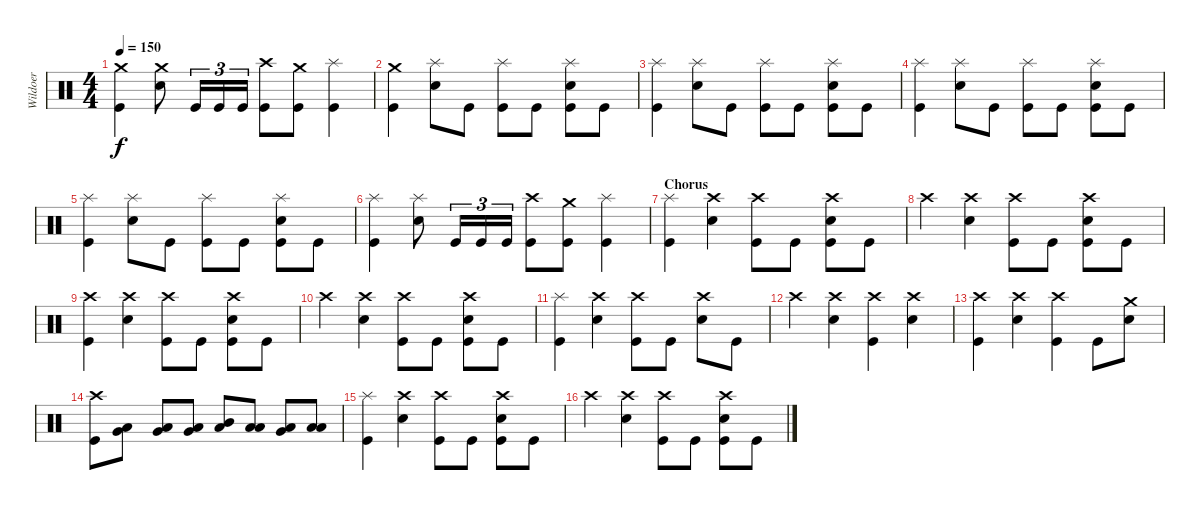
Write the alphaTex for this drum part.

\track ("Wildoer" "Wildoer") {instrument percussion}
\staff {score}
\articulation defaults
\ts (4 4)
\tempo 150
\clef neutral
\ks c
("Crash medium (hit)" "Kick (hit)").4{dy f} ("Crash medium (hit)" "Electric Snare (hit)").8 "Kick (hit)".16{tu (3 2)} "Kick (hit)".16{tu (3 2)} "Kick (hit)".16{tu (3 2)} ("Crash high (hit)" "Kick (hit)").8 ("Crash medium (hit)" "Kick (hit)").8 ("Splash (hit)" "Kick (hit)").4 |
("Crash medium (hit)" "Kick (hit)").4 ("Splash (hit)" "Electric Snare (hit)").8 "Kick (hit)".8 ("Splash (hit)" "Kick (hit)").8 "Kick (hit)".8 ("Splash (hit)" "Electric Snare (hit)" "Kick (hit)").8 "Kick (hit)".8 |
("Splash (hit)" "Kick (hit)").4 ("Splash (hit)" "Electric Snare (hit)").8 "Kick (hit)".8 ("Splash (hit)" "Kick (hit)").8 "Kick (hit)".8 ("Splash (hit)" "Electric Snare (hit)" "Kick (hit)").8 "Kick (hit)".8 |
("Splash (hit)" "Kick (hit)").4 ("Splash (hit)" "Electric Snare (hit)").8 "Kick (hit)".8 ("Splash (hit)" "Kick (hit)").8 "Kick (hit)".8 ("Splash (hit)" "Electric Snare (hit)" "Kick (hit)").8 "Kick (hit)".8 |
("Splash (hit)" "Kick (hit)").4 ("Splash (hit)" "Electric Snare (hit)").8 "Kick (hit)".8 ("Splash (hit)" "Kick (hit)").8 "Kick (hit)".8 ("Splash (hit)" "Electric Snare (hit)" "Kick (hit)").8 "Kick (hit)".8 |
("Splash (hit)" "Kick (hit)").4 ("Splash (hit)" "Electric Snare (hit)").8 "Kick (hit)".16{tu (3 2)} "Kick (hit)".16{tu (3 2)} "Kick (hit)".16{tu (3 2)} ("Crash high (hit)" "Kick (hit)").8 ("Crash medium (hit)" "Kick (hit)").8 ("Splash (hit)" "Kick (hit)").4 |
\section ("" "Chorus")
("Splash (hit)" "Kick (hit)").4 ("Crash high (hit)" "Electric Snare (hit)").4 ("Crash high (hit)" "Kick (hit)").8 "Kick (hit)".8 ("Crash high (hit)" "Electric Snare (hit)" "Kick (hit)").8 "Kick (hit)".8 |
"Crash high (hit)".4 ("Crash high (hit)" "Electric Snare (hit)").4 ("Crash high (hit)" "Kick (hit)").8 "Kick (hit)".8 ("Crash high (hit)" "Electric Snare (hit)" "Kick (hit)").8 "Kick (hit)".8 |
("Crash high (hit)" "Kick (hit)").4 ("Crash high (hit)" "Electric Snare (hit)").4 ("Crash high (hit)" "Kick (hit)").8 "Kick (hit)".8 ("Crash high (hit)" "Electric Snare (hit)" "Kick (hit)").8 "Kick (hit)".8 |
"Crash high (hit)".4 ("Crash high (hit)" "Electric Snare (hit)").4 ("Crash high (hit)" "Kick (hit)").8 "Kick (hit)".8 ("Crash high (hit)" "Electric Snare (hit)" "Kick (hit)").8 "Kick (hit)".8 |
("Splash (hit)" "Kick (hit)").4 ("Crash high (hit)" "Electric Snare (hit)").4 ("Crash high (hit)" "Kick (hit)").8 "Kick (hit)".8 ("Crash high (hit)" "Electric Snare (hit)").8 "Kick (hit)".8 |
"Crash high (hit)".4 ("Crash high (hit)" "Electric Snare (hit)").4 ("Crash high (hit)" "Kick (hit)").4 ("Crash high (hit)" "Electric Snare (hit)").4 |
("Crash high (hit)" "Kick (hit)").4 ("Crash high (hit)" "Electric Snare (hit)").4 ("Crash high (hit)" "Kick (hit)").4 "Kick (hit)".8 ("Crash medium (hit)" "Electric Snare (hit)").8 |
("Crash high (hit)" "Kick (hit)").8 ("Low Floor Tom (hit)" "Very Low Tom (hit)").8 ("Low Floor Tom (hit)" "Very Low Tom (hit)").8 ("Low Floor Tom (hit)" "Very Low Tom (hit)").8 ("Mid Tom (hit)" "Low Floor Tom (hit)").8 ("Low Tom (hit)" "Low Floor Tom (hit)").8 ("Very Low Tom (hit)" "Low Floor Tom (hit)").8 ("Low Tom (hit)" "Low Floor Tom (hit)").8 |
("Splash (hit)" "Kick (hit)").4 ("Crash high (hit)" "Electric Snare (hit)").4 ("Crash high (hit)" "Kick (hit)").8 "Kick (hit)".8 ("Crash high (hit)" "Electric Snare (hit)" "Kick (hit)").8 "Kick (hit)".8 |
"Crash high (hit)".4 ("Crash high (hit)" "Electric Snare (hit)").4 ("Crash high (hit)" "Kick (hit)").8 "Kick (hit)".8 ("Crash high (hit)" "Electric Snare (hit)" "Kick (hit)").8 "Kick (hit)".8
